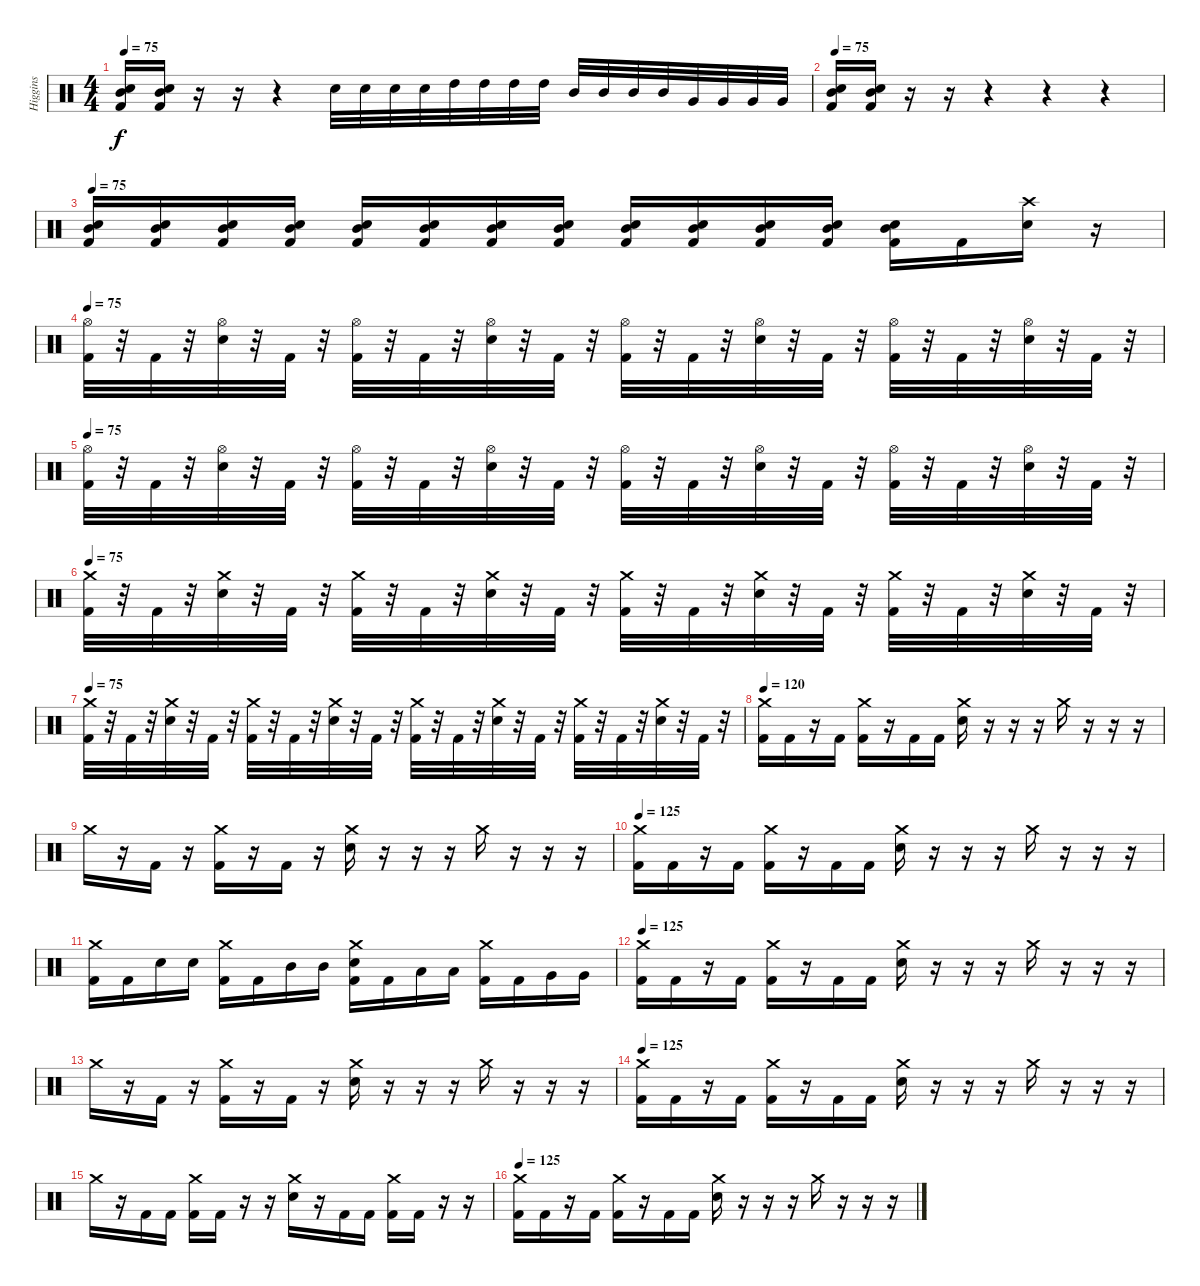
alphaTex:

\track ("Higgins" "Higgins") {instrument percussion}
\staff {score}
\articulation defaults
\ts (4 4)
\tempo 75
\clef neutral
\ks c
("Mid Tom (hit)" "Snare (hit) 2" "Kick (hit) 2").16{dy f} ("Mid Tom (hit)" "Snare (hit) 2" "Kick (hit) 2").16 r.16 r.16 r.4 "Snare (hit) 2".32 "Snare (hit) 2".32 "Snare (hit) 2".32 "Snare (hit) 2".32 "High Tom (hit)".32 "High Tom (hit)".32 "High Tom (hit)".32 "High Tom (hit)".32 "Mid Tom (hit)".32 "Mid Tom (hit)".32 "Mid Tom (hit)".32 "Mid Tom (hit)".32 "Very Low Tom (hit)".32 "Very Low Tom (hit)".32 "Very Low Tom (hit)".32 "Very Low Tom (hit)".32 |
\tempo 75
("Mid Tom (hit)" "Snare (hit) 2" "Kick (hit) 2").16 ("Mid Tom (hit)" "Snare (hit) 2" "Kick (hit) 2").16 r.16 r.16 r.4 r.4 r.4 |
\tempo 75
("Mid Tom (hit)" "Kick (hit) 2" "Snare (hit) 2").16 ("Mid Tom (hit)" "Kick (hit) 2" "Snare (hit) 2").16 ("Mid Tom (hit)" "Kick (hit) 2" "Snare (hit) 2").16 ("Mid Tom (hit)" "Kick (hit) 2" "Snare (hit) 2").16 ("Mid Tom (hit)" "Kick (hit) 2" "Snare (hit) 2").16 ("Mid Tom (hit)" "Kick (hit) 2" "Snare (hit) 2").16 ("Mid Tom (hit)" "Kick (hit) 2" "Snare (hit) 2").16 ("Mid Tom (hit)" "Kick (hit) 2" "Snare (hit) 2").16 ("Mid Tom (hit)" "Kick (hit) 2" "Snare (hit) 2").16 ("Mid Tom (hit)" "Kick (hit) 2" "Snare (hit) 2").16 ("Mid Tom (hit)" "Kick (hit) 2" "Snare (hit) 2").16 ("Mid Tom (hit)" "Kick (hit) 2" "Snare (hit) 2").16 ("Mid Tom (hit)" "Kick (hit) 2" "Snare (hit) 2").16 "Kick (hit) 2".16 ("Crash high (hit)" "Snare (hit) 2").16 r.16 |
\tempo 75
("Hi-Hat (open)" "Kick (hit) 2").32 r.32 "Kick (hit) 2".32 r.32 ("Hi-Hat (open)" "Snare (hit) 2").32 r.32 "Kick (hit) 2".32 r.32 ("Hi-Hat (open)" "Kick (hit) 2").32 r.32 "Kick (hit) 2".32 r.32 ("Hi-Hat (open)" "Snare (hit) 2").32 r.32 "Kick (hit) 2".32 r.32 ("Hi-Hat (open)" "Kick (hit) 2").32 r.32 "Kick (hit) 2".32 r.32 ("Hi-Hat (open)" "Snare (hit) 2").32 r.32 "Kick (hit) 2".32 r.32 ("Hi-Hat (open)" "Kick (hit) 2").32 r.32 "Kick (hit) 2".32 r.32 ("Hi-Hat (open)" "Snare (hit) 2").32 r.32 "Kick (hit) 2".32 r.32 |
\tempo 75
("Hi-Hat (open)" "Kick (hit) 2").32 r.32 "Kick (hit) 2".32 r.32 ("Hi-Hat (open)" "Snare (hit) 2").32 r.32 "Kick (hit) 2".32 r.32 ("Hi-Hat (open)" "Kick (hit) 2").32 r.32 "Kick (hit) 2".32 r.32 ("Hi-Hat (open)" "Snare (hit) 2").32 r.32 "Kick (hit) 2".32 r.32 ("Hi-Hat (open)" "Kick (hit) 2").32 r.32 "Kick (hit) 2".32 r.32 ("Hi-Hat (open)" "Snare (hit) 2").32 r.32 "Kick (hit) 2".32 r.32 ("Hi-Hat (open)" "Kick (hit) 2").32 r.32 "Kick (hit) 2".32 r.32 ("Hi-Hat (open)" "Snare (hit) 2").32 r.32 "Kick (hit) 2".32 r.32 |
\tempo 75
("Crash medium (hit)" "Kick (hit) 2").32 r.32 "Kick (hit) 2".32 r.32 ("Crash medium (hit)" "Snare (hit) 2").32 r.32 "Kick (hit) 2".32 r.32 ("Crash medium (hit)" "Kick (hit) 2").32 r.32 "Kick (hit) 2".32 r.32 ("Crash medium (hit)" "Snare (hit) 2").32 r.32 "Kick (hit) 2".32 r.32 ("Crash medium (hit)" "Kick (hit) 2").32 r.32 "Kick (hit) 2".32 r.32 ("Crash medium (hit)" "Snare (hit) 2").32 r.32 "Kick (hit) 2".32 r.32 ("Crash medium (hit)" "Kick (hit) 2").32 r.32 "Kick (hit) 2".32 r.32 ("Crash medium (hit)" "Snare (hit) 2").32 r.32 "Kick (hit) 2".32 r.32 |
\tempo 75
("Crash medium (hit)" "Kick (hit) 2").32 r.32 "Kick (hit) 2".32 r.32 ("Crash medium (hit)" "Snare (hit) 2").32 r.32 "Kick (hit) 2".32 r.32 ("Crash medium (hit)" "Kick (hit) 2").32 r.32 "Kick (hit) 2".32 r.32 ("Crash medium (hit)" "Snare (hit) 2").32 r.32 "Kick (hit) 2".32 r.32 ("Crash medium (hit)" "Kick (hit) 2").32 r.32 "Kick (hit) 2".32 r.32 ("Crash medium (hit)" "Snare (hit) 2").32 r.32 "Kick (hit) 2".32 r.32 ("Crash medium (hit)" "Kick (hit) 2").32 r.32 "Kick (hit) 2".32 r.32 ("Crash medium (hit)" "Snare (hit) 2").32 r.32 "Kick (hit) 2".32 r.32 |
\tempo 120
("Crash medium (hit)" "Kick (hit) 2").16 "Kick (hit) 2".16 r.16 "Kick (hit) 2".16 ("Crash medium (hit)" "Kick (hit) 2").16 r.16 "Kick (hit) 2".16 "Kick (hit) 2".16 ("Crash medium (hit)" "Snare (hit) 2").16 r.16 r.16 r.16 "Crash medium (hit)".16 r.16 r.16 r.16 |
"Crash medium (hit)".16 r.16 "Kick (hit) 2".16 r.16 ("Crash medium (hit)" "Kick (hit) 2").16 r.16 "Kick (hit) 2".16 r.16 ("Crash medium (hit)" "Snare (hit) 2").16 r.16 r.16 r.16 "Crash medium (hit)".16 r.16 r.16 r.16 |
\tempo 125
("Crash medium (hit)" "Kick (hit) 2").16 "Kick (hit) 2".16 r.16 "Kick (hit) 2".16 ("Crash medium (hit)" "Kick (hit) 2").16 r.16 "Kick (hit) 2".16 "Kick (hit) 2".16 ("Crash medium (hit)" "Snare (hit) 2").16 r.16 r.16 r.16 "Crash medium (hit)".16 r.16 r.16 r.16 |
("Crash medium (hit)" "Kick (hit) 2").16 "Kick (hit) 2".16 "Snare (hit) 2".16 "Snare (hit) 2".16 ("Crash medium (hit)" "Kick (hit) 2").16 "Kick (hit) 2".16 "Mid Tom (hit)".16 "Mid Tom (hit)".16 ("Crash medium (hit)" "Snare (hit) 2" "Kick (hit) 2").16 "Kick (hit) 2".16 "Low Tom (hit)".16 "Low Tom (hit)".16 ("Crash medium (hit)" "Kick (hit) 2").16 "Kick (hit) 2".16 "Very Low Tom (hit)".16 "Very Low Tom (hit)".16 |
\tempo 125
("Crash medium (hit)" "Kick (hit) 2").16 "Kick (hit) 2".16 r.16 "Kick (hit) 2".16 ("Crash medium (hit)" "Kick (hit) 2").16 r.16 "Kick (hit) 2".16 "Kick (hit) 2".16 ("Crash medium (hit)" "Snare (hit) 2").16 r.16 r.16 r.16 "Crash medium (hit)".16 r.16 r.16 r.16 |
"Crash medium (hit)".16 r.16 "Kick (hit) 2".16 r.16 ("Crash medium (hit)" "Kick (hit) 2").16 r.16 "Kick (hit) 2".16 r.16 ("Crash medium (hit)" "Snare (hit) 2").16 r.16 r.16 r.16 "Crash medium (hit)".16 r.16 r.16 r.16 |
\tempo 125
("Crash medium (hit)" "Kick (hit) 2").16 "Kick (hit) 2".16 r.16 "Kick (hit) 2".16 ("Crash medium (hit)" "Kick (hit) 2").16 r.16 "Kick (hit) 2".16 "Kick (hit) 2".16 ("Crash medium (hit)" "Snare (hit) 2").16 r.16 r.16 r.16 "Crash medium (hit)".16 r.16 r.16 r.16 |
"Crash medium (hit)".16 r.16 "Kick (hit) 2".16 "Kick (hit) 2".16 ("Crash medium (hit)" "Kick (hit) 2").16 "Kick (hit) 2".16 r.16 r.16 ("Crash medium (hit)" "Snare (hit) 2").16 r.16 "Kick (hit) 2".16 "Kick (hit) 2".16 ("Crash medium (hit)" "Kick (hit) 2").16 "Kick (hit) 2".16 r.16 r.16 |
\tempo 125
("Crash medium (hit)" "Kick (hit) 2").16 "Kick (hit) 2".16 r.16 "Kick (hit) 2".16 ("Crash medium (hit)" "Kick (hit) 2").16 r.16 "Kick (hit) 2".16 "Kick (hit) 2".16 ("Crash medium (hit)" "Snare (hit) 2").16 r.16 r.16 r.16 "Crash medium (hit)".16 r.16 r.16 r.16
